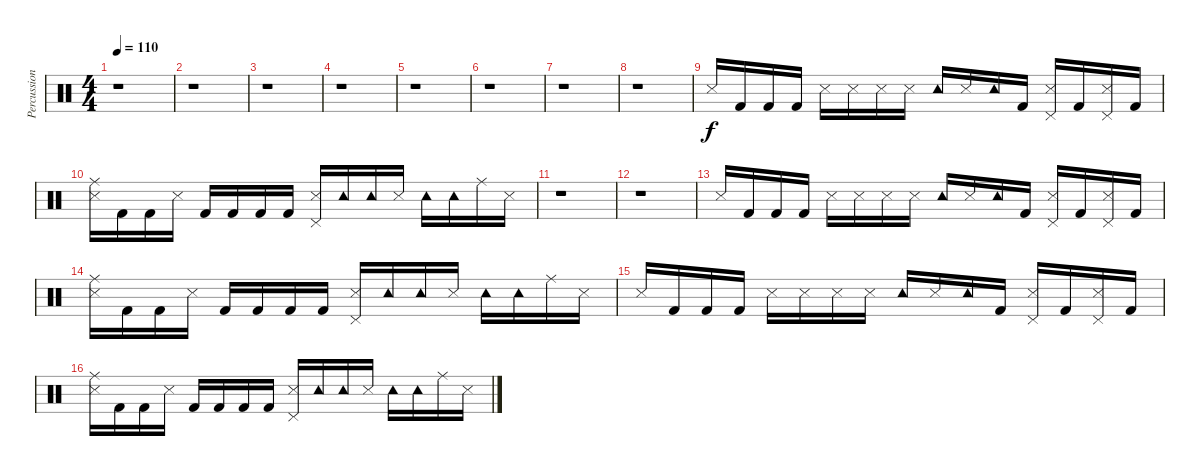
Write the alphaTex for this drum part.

\track ("Percussions" "Percussion") {instrument percussion}
\staff {score}
\articulation defaults
\ts (4 4)
\tempo 110
\clef neutral
\ks c
r.1{dy f} |
r.1 |
r.1 |
r.1 |
r.1 |
r.1 |
r.1 |
r.1 |
"Snare (side stick) 3".16 "Kick (hit) 2".16 "Kick (hit) 2".16 "Kick (hit) 2".16 "Snare (side stick) 3".16 "Snare (side stick) 3".16 "Snare (side stick) 3".16 "Snare (side stick) 3".16 "Tambourine (hit)".16 "Snare (side stick) 3".16 "Tambourine (hit)".16 "Kick (hit) 2".16 ("Pedal Hi-Hat (hit)" "Snare (side stick) 3").16 "Kick (hit) 2".16 ("Pedal Hi-Hat (hit)" "Snare (side stick) 3").16 "Kick (hit) 2".16 |
("Ride (middle)" "Snare (side stick) 3").16 "Kick (hit) 2".16 "Kick (hit) 2".16 "Snare (side stick) 3".16 "Kick (hit) 2".16 "Kick (hit) 2".16 "Kick (hit) 2".16 "Kick (hit) 2".16 ("Pedal Hi-Hat (hit)" "Snare (side stick) 3").16 "Tambourine (hit)".16 "Tambourine (hit)".16 "Snare (side stick) 3".16 "Tambourine (hit)".16 "Tambourine (hit)".16 "Ride (middle)".16 "Snare (side stick) 3".16 |
r.1 |
r.1 |
"Snare (side stick) 3".16 "Kick (hit) 2".16 "Kick (hit) 2".16 "Kick (hit) 2".16 "Snare (side stick) 3".16 "Snare (side stick) 3".16 "Snare (side stick) 3".16 "Snare (side stick) 3".16 "Tambourine (hit)".16 "Snare (side stick) 3".16 "Tambourine (hit)".16 "Kick (hit) 2".16 ("Pedal Hi-Hat (hit)" "Snare (side stick) 3").16 "Kick (hit) 2".16 ("Pedal Hi-Hat (hit)" "Snare (side stick) 3").16 "Kick (hit) 2".16 |
("Ride (middle)" "Snare (side stick) 3").16 "Kick (hit) 2".16 "Kick (hit) 2".16 "Snare (side stick) 3".16 "Kick (hit) 2".16 "Kick (hit) 2".16 "Kick (hit) 2".16 "Kick (hit) 2".16 ("Pedal Hi-Hat (hit)" "Snare (side stick) 3").16 "Tambourine (hit)".16 "Tambourine (hit)".16 "Snare (side stick) 3".16 "Tambourine (hit)".16 "Tambourine (hit)".16 "Ride (middle)".16 "Snare (side stick) 3".16 |
"Snare (side stick) 3".16 "Kick (hit) 2".16 "Kick (hit) 2".16 "Kick (hit) 2".16 "Snare (side stick) 3".16 "Snare (side stick) 3".16 "Snare (side stick) 3".16 "Snare (side stick) 3".16 "Tambourine (hit)".16 "Snare (side stick) 3".16 "Tambourine (hit)".16 "Kick (hit) 2".16 ("Pedal Hi-Hat (hit)" "Snare (side stick) 3").16 "Kick (hit) 2".16 ("Pedal Hi-Hat (hit)" "Snare (side stick) 3").16 "Kick (hit) 2".16 |
("Ride (middle)" "Snare (side stick) 3").16 "Kick (hit) 2".16 "Kick (hit) 2".16 "Snare (side stick) 3".16 "Kick (hit) 2".16 "Kick (hit) 2".16 "Kick (hit) 2".16 "Kick (hit) 2".16 ("Pedal Hi-Hat (hit)" "Snare (side stick) 3").16 "Tambourine (hit)".16 "Tambourine (hit)".16 "Snare (side stick) 3".16 "Tambourine (hit)".16 "Tambourine (hit)".16 "Ride (middle)".16 "Snare (side stick) 3".16
